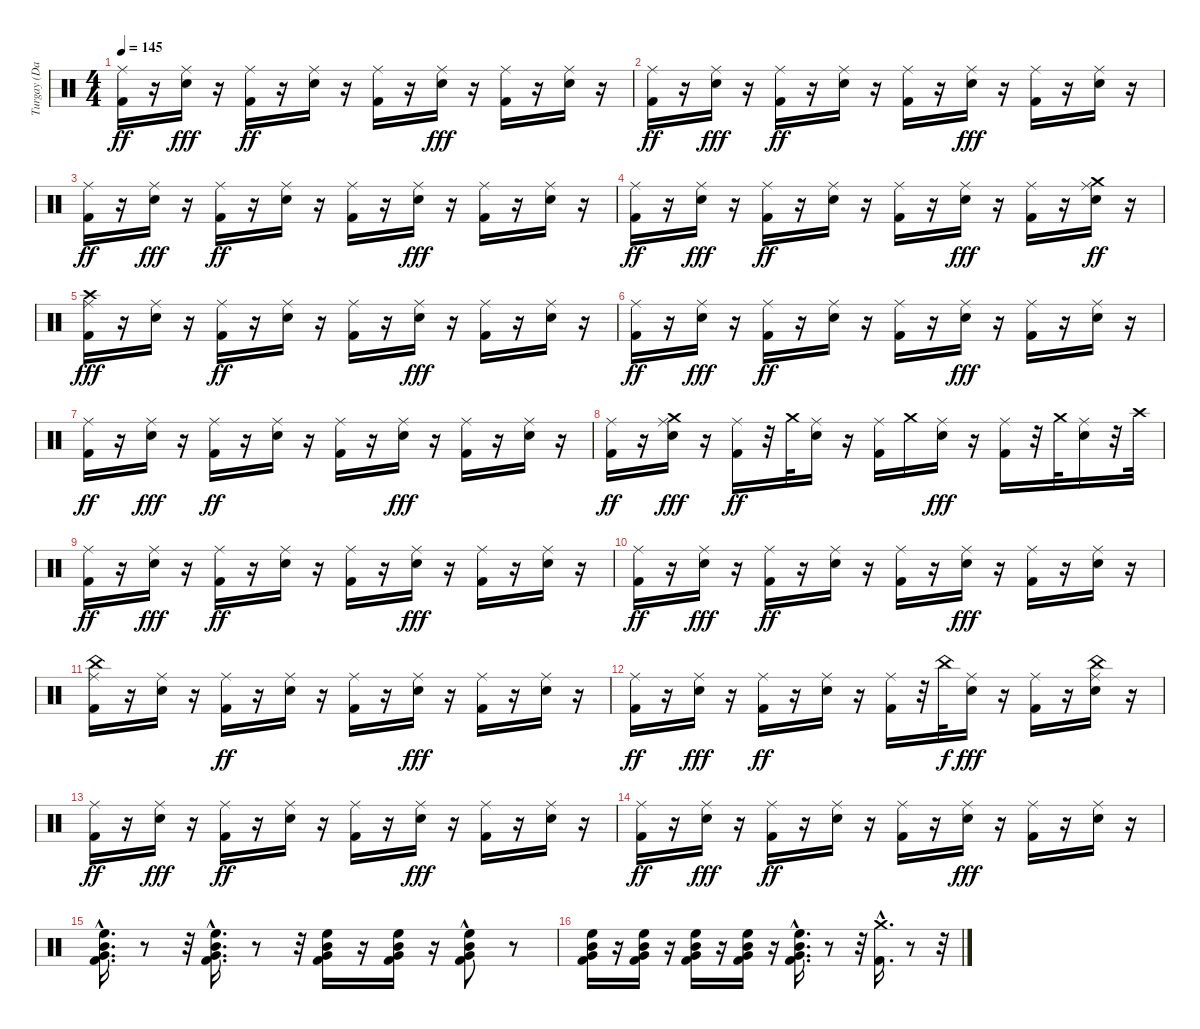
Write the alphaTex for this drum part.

\track ("Turgay (Davul)" "Turgay (Da") {instrument percussion}
\staff {score}
\articulation defaults
\ts (4 4)
\tempo 145
\clef neutral
\ks c
("Ride (middle)" "Kick (hit) 2").16{dy ff} r.16 ("Electric Snare (hit)" "Ride (middle)").16{dy fff} r.16 ("Kick (hit) 2" "Ride (middle)").16{dy ff} r.16 ("Electric Snare (hit)" "Ride (middle)").16 r.16 ("Kick (hit) 2" "Ride (middle)").16 r.16 ("Electric Snare (hit)" "Ride (middle)").16{dy fff} r.16 ("Kick (hit) 2" "Ride (middle)").16 r.16 ("Electric Snare (hit)" "Ride (middle)").16 r.16 |
("Ride (middle)" "Kick (hit) 2").16{dy ff} r.16 ("Electric Snare (hit)" "Ride (middle)").16{dy fff} r.16 ("Kick (hit) 2" "Ride (middle)").16{dy ff} r.16 ("Electric Snare (hit)" "Ride (middle)").16 r.16 ("Kick (hit) 2" "Ride (middle)").16 r.16 ("Electric Snare (hit)" "Ride (middle)").16{dy fff} r.16 ("Kick (hit) 2" "Ride (middle)").16 r.16 ("Electric Snare (hit)" "Ride (middle)").16 r.16 |
("Ride (middle)" "Kick (hit) 2").16{dy ff} r.16 ("Electric Snare (hit)" "Ride (middle)").16{dy fff} r.16 ("Kick (hit) 2" "Ride (middle)").16{dy ff} r.16 ("Electric Snare (hit)" "Ride (middle)").16 r.16 ("Kick (hit) 2" "Ride (middle)").16 r.16 ("Electric Snare (hit)" "Ride (middle)").16{dy fff} r.16 ("Kick (hit) 2" "Ride (middle)").16 r.16 ("Electric Snare (hit)" "Ride (middle)").16 r.16 |
("Ride (middle)" "Kick (hit) 2").16{dy ff} r.16 ("Electric Snare (hit)" "Ride (middle)").16{dy fff} r.16 ("Kick (hit) 2" "Ride (middle)").16{dy ff} r.16 ("Electric Snare (hit)" "Ride (middle)").16 r.16 ("Kick (hit) 2" "Ride (middle)").16 r.16 ("Electric Snare (hit)" "Ride (middle)").16{dy fff} r.16 ("Kick (hit) 2" "Ride (middle)").16 r.16 ("Electric Snare (hit)" "Ride (middle)" "Crash medium (hit)").16{dy ff} r.16 |
("Ride (middle)" "Kick (hit) 2" "Crash high (hit)").16{dy fff} r.16 ("Electric Snare (hit)" "Ride (middle)").16 r.16 ("Kick (hit) 2" "Ride (middle)").16{dy ff} r.16 ("Electric Snare (hit)" "Ride (middle)").16 r.16 ("Kick (hit) 2" "Ride (middle)").16 r.16 ("Electric Snare (hit)" "Ride (middle)").16{dy fff} r.16 ("Kick (hit) 2" "Ride (middle)").16 r.16 ("Electric Snare (hit)" "Ride (middle)").16 r.16 |
("Ride (middle)" "Kick (hit) 2").16{dy ff} r.16 ("Electric Snare (hit)" "Ride (middle)").16{dy fff} r.16 ("Kick (hit) 2" "Ride (middle)").16{dy ff} r.16 ("Electric Snare (hit)" "Ride (middle)").16 r.16 ("Kick (hit) 2" "Ride (middle)").16 r.16 ("Electric Snare (hit)" "Ride (middle)").16{dy fff} r.16 ("Kick (hit) 2" "Ride (middle)").16 r.16 ("Electric Snare (hit)" "Ride (middle)").16 r.16 |
("Ride (middle)" "Kick (hit) 2").16{dy ff} r.16 ("Electric Snare (hit)" "Ride (middle)").16{dy fff} r.16 ("Kick (hit) 2" "Ride (middle)").16{dy ff} r.16 ("Electric Snare (hit)" "Ride (middle)").16 r.16 ("Kick (hit) 2" "Ride (middle)").16 r.16 ("Electric Snare (hit)" "Ride (middle)").16{dy fff} r.16 ("Kick (hit) 2" "Ride (middle)").16 r.16 ("Electric Snare (hit)" "Ride (middle)").16 r.16 |
("Ride (middle)" "Kick (hit) 2").16{dy ff} r.16 ("Crash medium (hit)" "Electric Snare (hit)" "Ride (middle)").16{dy fff} r.16 ("Kick (hit) 2" "Ride (middle)").16{dy ff} r.32 "Crash medium (hit)".32 ("Electric Snare (hit)" "Ride (middle)").16 r.16 ("Kick (hit) 2" "Ride (middle)").16 "Crash medium (hit)".16 ("Electric Snare (hit)" "Ride (middle)").16{dy fff} r.16 ("Kick (hit) 2" "Ride (middle)").16 r.32 "Crash medium (hit)".32 ("Electric Snare (hit)" "Ride (middle)").16 r.32 "Crash high (hit)".32 |
("Ride (middle)" "Kick (hit) 2").16{dy ff} r.16 ("Electric Snare (hit)" "Ride (middle)").16{dy fff} r.16 ("Kick (hit) 2" "Ride (middle)").16{dy ff} r.16 ("Electric Snare (hit)" "Ride (middle)").16 r.16 ("Kick (hit) 2" "Ride (middle)").16 r.16 ("Electric Snare (hit)" "Ride (middle)").16{dy fff} r.16 ("Kick (hit) 2" "Ride (middle)").16 r.16 ("Electric Snare (hit)" "Ride (middle)").16 r.16 |
("Ride (middle)" "Kick (hit) 2").16{dy ff} r.16 ("Electric Snare (hit)" "Ride (middle)").16{dy fff} r.16 ("Kick (hit) 2" "Ride (middle)").16{dy ff} r.16 ("Electric Snare (hit)" "Ride (middle)").16 r.16 ("Kick (hit) 2" "Ride (middle)").16 r.16 ("Electric Snare (hit)" "Ride (middle)").16{dy fff} r.16 ("Kick (hit) 2" "Ride (middle)").16 r.16 ("Electric Snare (hit)" "Ride (middle)").16 r.16 |
("Ride (middle)" "Kick (hit) 2" "China (hit)").16 r.16 ("Electric Snare (hit)" "Ride (middle)").16 r.16 ("Kick (hit) 2" "Ride (middle)").16{dy ff} r.16 ("Electric Snare (hit)" "Ride (middle)").16 r.16 ("Kick (hit) 2" "Ride (middle)").16 r.16 ("Electric Snare (hit)" "Ride (middle)").16{dy fff} r.16 ("Kick (hit) 2" "Ride (middle)").16 r.16 ("Electric Snare (hit)" "Ride (middle)").16 r.16 |
("Ride (middle)" "Kick (hit) 2").16{dy ff} r.16 ("Electric Snare (hit)" "Ride (middle)").16{dy fff} r.16 ("Kick (hit) 2" "Ride (middle)").16{dy ff} r.16 ("Electric Snare (hit)" "Ride (middle)").16 r.16 ("Kick (hit) 2" "Ride (middle)").16 r.32 "China (hit)".32{dy f} ("Electric Snare (hit)" "Ride (middle)").16{dy fff} r.16 ("Kick (hit) 2" "Ride (middle)").16 r.16 ("Electric Snare (hit)" "Ride (middle)" "China (hit)").16 r.16 |
("Ride (middle)" "Kick (hit) 2").16{dy ff} r.16 ("Electric Snare (hit)" "Ride (middle)").16{dy fff} r.16 ("Kick (hit) 2" "Ride (middle)").16{dy ff} r.16 ("Electric Snare (hit)" "Ride (middle)").16 r.16 ("Kick (hit) 2" "Ride (middle)").16 r.16 ("Electric Snare (hit)" "Ride (middle)").16{dy fff} r.16 ("Kick (hit) 2" "Ride (middle)").16 r.16 ("Electric Snare (hit)" "Ride (middle)").16 r.16 |
("Ride (middle)" "Kick (hit) 2").16{dy ff} r.16 ("Electric Snare (hit)" "Ride (middle)").16{dy fff} r.16 ("Kick (hit) 2" "Ride (middle)").16{dy ff} r.16 ("Electric Snare (hit)" "Ride (middle)").16 r.16 ("Kick (hit) 2" "Ride (middle)").16 r.16 ("Electric Snare (hit)" "Ride (middle)").16{dy fff} r.16 ("Kick (hit) 2" "Ride (middle)").16 r.16 ("Electric Snare (hit)" "Ride (middle)").16 r.16 |
("Mid Tom (hit)" "Very Low Tom (hit)" "High Floor Tom (hit)"{hac} "Kick (hit) 2").16{d} r.8 r.32 ("Kick (hit) 2" "Mid Tom (hit)" "Very Low Tom (hit)"{hac} "High Floor Tom (hit)"{hac}).16{d} r.8 r.32 ("Kick (hit) 2" "Mid Tom (hit)" "High Floor Tom (hit)" "Very Low Tom (hit)").16 r.16 ("Kick (hit) 2" "Mid Tom (hit)" "Very Low Tom (hit)" "High Floor Tom (hit)").16 r.16 ("Kick (hit) 2"{hac} "Very Low Tom (hit)" "Mid Tom (hit)"{hac} "High Floor Tom (hit)"{hac}).8 r.8 |
("Kick (hit) 2" "Very Low Tom (hit)" "Mid Tom (hit)" "High Floor Tom (hit)").16 r.16 ("Kick (hit) 2" "Very Low Tom (hit)" "Mid Tom (hit)" "High Floor Tom (hit)").16 r.16 ("Kick (hit) 2" "Very Low Tom (hit)" "Mid Tom (hit)" "High Floor Tom (hit)").16 r.16 ("Kick (hit) 2" "Very Low Tom (hit)" "High Floor Tom (hit)" "Mid Tom (hit)").16 r.16 ("Very Low Tom (hit)"{hac} "Kick (hit) 2"{hac} "Mid Tom (hit)"{hac} "High Floor Tom (hit)"{hac}).16{d} r.8 r.32 ("Kick (hit) 2"{hac} "Crash medium (hit)").16{d} r.8 r.32
